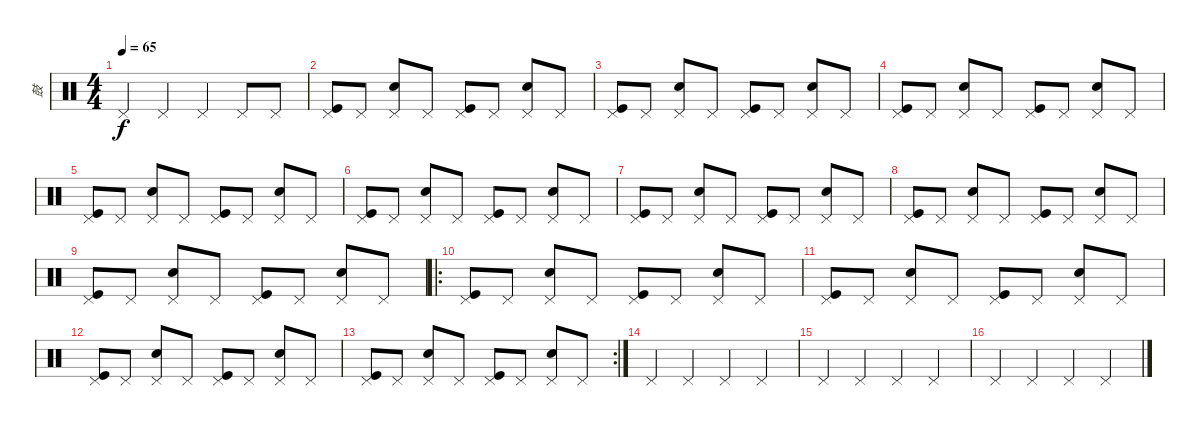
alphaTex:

\track ("鼓" "鼓") {instrument percussion}
\staff {score}
\articulation defaults
\ts (4 4)
\tempo 65
\clef neutral
\ks c "Pedal Hi-Hat (hit)".4{dy f} "Pedal Hi-Hat (hit)".4 "Pedal Hi-Hat (hit)".4 "Pedal Hi-Hat (hit)".8 "Pedal Hi-Hat (hit)".8
|
("Pedal Hi-Hat (hit)" "Kick (hit)").8 "Pedal Hi-Hat (hit)".8 ("Pedal Hi-Hat (hit)" "Electric Snare (hit)").8 "Pedal Hi-Hat (hit)".8 ("Pedal Hi-Hat (hit)" "Kick (hit)").8 "Pedal Hi-Hat (hit)".8 ("Pedal Hi-Hat (hit)" "Electric Snare (hit)").8 "Pedal Hi-Hat (hit)".8 |
("Pedal Hi-Hat (hit)" "Kick (hit)").8 "Pedal Hi-Hat (hit)".8 ("Pedal Hi-Hat (hit)" "Electric Snare (hit)").8 "Pedal Hi-Hat (hit)".8 ("Pedal Hi-Hat (hit)" "Kick (hit)").8 "Pedal Hi-Hat (hit)".8 ("Pedal Hi-Hat (hit)" "Electric Snare (hit)").8 "Pedal Hi-Hat (hit)".8 |
("Pedal Hi-Hat (hit)" "Kick (hit)").8 "Pedal Hi-Hat (hit)".8 ("Pedal Hi-Hat (hit)" "Electric Snare (hit)").8 "Pedal Hi-Hat (hit)".8 ("Pedal Hi-Hat (hit)" "Kick (hit)").8 "Pedal Hi-Hat (hit)".8 ("Pedal Hi-Hat (hit)" "Electric Snare (hit)").8 "Pedal Hi-Hat (hit)".8 |
("Pedal Hi-Hat (hit)" "Kick (hit)").8 "Pedal Hi-Hat (hit)".8 ("Pedal Hi-Hat (hit)" "Electric Snare (hit)").8 "Pedal Hi-Hat (hit)".8 ("Pedal Hi-Hat (hit)" "Kick (hit)").8 "Pedal Hi-Hat (hit)".8 ("Pedal Hi-Hat (hit)" "Electric Snare (hit)").8 "Pedal Hi-Hat (hit)".8 |
("Pedal Hi-Hat (hit)" "Kick (hit)").8 "Pedal Hi-Hat (hit)".8 ("Pedal Hi-Hat (hit)" "Electric Snare (hit)").8 "Pedal Hi-Hat (hit)".8 ("Pedal Hi-Hat (hit)" "Kick (hit)").8 "Pedal Hi-Hat (hit)".8 ("Pedal Hi-Hat (hit)" "Electric Snare (hit)").8 "Pedal Hi-Hat (hit)".8 |
("Pedal Hi-Hat (hit)" "Kick (hit)").8 "Pedal Hi-Hat (hit)".8 ("Pedal Hi-Hat (hit)" "Electric Snare (hit)").8 "Pedal Hi-Hat (hit)".8 ("Pedal Hi-Hat (hit)" "Kick (hit)").8 "Pedal Hi-Hat (hit)".8 ("Pedal Hi-Hat (hit)" "Electric Snare (hit)").8 "Pedal Hi-Hat (hit)".8 |
("Pedal Hi-Hat (hit)" "Kick (hit)").8 "Pedal Hi-Hat (hit)".8 ("Pedal Hi-Hat (hit)" "Electric Snare (hit)").8 "Pedal Hi-Hat (hit)".8 ("Pedal Hi-Hat (hit)" "Kick (hit)").8 "Pedal Hi-Hat (hit)".8 ("Pedal Hi-Hat (hit)" "Electric Snare (hit)").8 "Pedal Hi-Hat (hit)".8 |
("Pedal Hi-Hat (hit)" "Kick (hit)").8 "Pedal Hi-Hat (hit)".8 ("Pedal Hi-Hat (hit)" "Electric Snare (hit)").8 "Pedal Hi-Hat (hit)".8 ("Pedal Hi-Hat (hit)" "Kick (hit)").8 "Pedal Hi-Hat (hit)".8 ("Pedal Hi-Hat (hit)" "Electric Snare (hit)").8 "Pedal Hi-Hat (hit)".8 |
\ro
("Pedal Hi-Hat (hit)" "Kick (hit)").8 "Pedal Hi-Hat (hit)".8 ("Pedal Hi-Hat (hit)" "Electric Snare (hit)").8 "Pedal Hi-Hat (hit)".8 ("Pedal Hi-Hat (hit)" "Kick (hit)").8 "Pedal Hi-Hat (hit)".8 ("Pedal Hi-Hat (hit)" "Electric Snare (hit)").8 "Pedal Hi-Hat (hit)".8 |
("Pedal Hi-Hat (hit)" "Kick (hit)").8 "Pedal Hi-Hat (hit)".8 ("Pedal Hi-Hat (hit)" "Electric Snare (hit)").8 "Pedal Hi-Hat (hit)".8 ("Pedal Hi-Hat (hit)" "Kick (hit)").8 "Pedal Hi-Hat (hit)".8 ("Pedal Hi-Hat (hit)" "Electric Snare (hit)").8 "Pedal Hi-Hat (hit)".8 |
("Pedal Hi-Hat (hit)" "Kick (hit)").8 "Pedal Hi-Hat (hit)".8 ("Pedal Hi-Hat (hit)" "Electric Snare (hit)").8 "Pedal Hi-Hat (hit)".8 ("Pedal Hi-Hat (hit)" "Kick (hit)").8 "Pedal Hi-Hat (hit)".8 ("Pedal Hi-Hat (hit)" "Electric Snare (hit)").8 "Pedal Hi-Hat (hit)".8 |
\rc 2
("Pedal Hi-Hat (hit)" "Kick (hit)").8 "Pedal Hi-Hat (hit)".8 ("Pedal Hi-Hat (hit)" "Electric Snare (hit)").8 "Pedal Hi-Hat (hit)".8 ("Pedal Hi-Hat (hit)" "Kick (hit)").8 "Pedal Hi-Hat (hit)".8 ("Pedal Hi-Hat (hit)" "Electric Snare (hit)").8 "Pedal Hi-Hat (hit)".8 |
"Pedal Hi-Hat (hit)".4 "Pedal Hi-Hat (hit)".4 "Pedal Hi-Hat (hit)".4 "Pedal Hi-Hat (hit)".4 |
"Pedal Hi-Hat (hit)".4 "Pedal Hi-Hat (hit)".4 "Pedal Hi-Hat (hit)".4 "Pedal Hi-Hat (hit)".4 |
"Pedal Hi-Hat (hit)".4 "Pedal Hi-Hat (hit)".4 "Pedal Hi-Hat (hit)".4 "Pedal Hi-Hat (hit)".4
